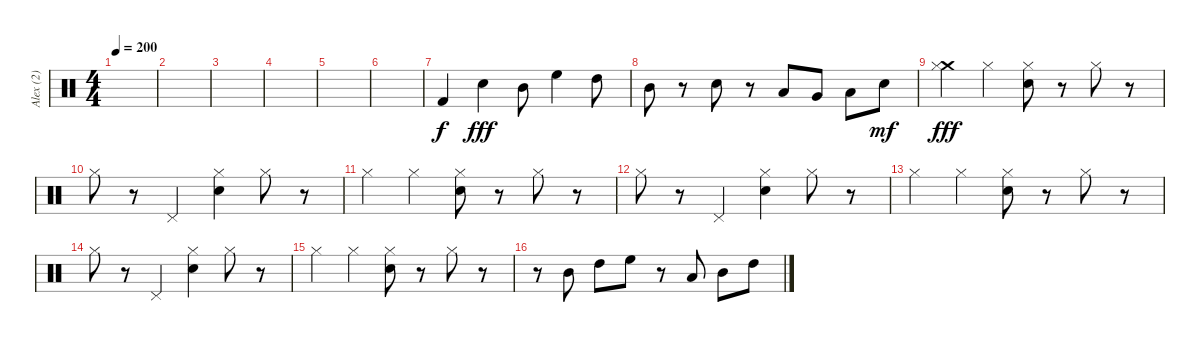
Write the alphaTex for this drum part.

\track ("Alex (2)" "Alex (2)") {instrument percussion}
\staff {score}
\articulation defaults
\ts (4 4)
\tempo 200
\clef neutral
\ks c
|
|
|
|
|
|
"Kick (hit) 2".4 "Electric Snare (hit)".4{dy fff} "Mid Tom (hit)".8 "High Floor Tom (hit)".4 "High Tom (hit)".8 |
"Mid Tom (hit)".8 r.8 "Electric Snare (hit)".8 r.8 "Low Tom (hit)".8 "Very Low Tom (hit)".8 "Low Floor Tom (hit)".8 "Electric Snare (hit)".8{dy mf} |
("Crash medium (hit)" "Hi-Hat (closed)").4{dy fff} "Hi-Hat (closed)".4 ("Electric Snare (hit)" "Hi-Hat (closed)").8 r.8 "Hi-Hat (closed)".8 r.8 |
"Hi-Hat (closed)".8 r.8 "Pedal Hi-Hat (hit)".4 ("Electric Snare (hit)" "Hi-Hat (closed)").4 "Hi-Hat (closed)".8 r.8 |
"Hi-Hat (closed)".4 "Hi-Hat (closed)".4 ("Electric Snare (hit)" "Hi-Hat (closed)").8 r.8 "Hi-Hat (closed)".8 r.8 |
"Hi-Hat (closed)".8 r.8 "Pedal Hi-Hat (hit)".4 ("Electric Snare (hit)" "Hi-Hat (closed)").4 "Hi-Hat (closed)".8 r.8 |
"Hi-Hat (closed)".4 "Hi-Hat (closed)".4 ("Electric Snare (hit)" "Hi-Hat (closed)").8 r.8 "Hi-Hat (closed)".8 r.8 |
"Hi-Hat (closed)".8 r.8 "Pedal Hi-Hat (hit)".4 ("Electric Snare (hit)" "Hi-Hat (closed)").4 "Hi-Hat (closed)".8 r.8 |
"Hi-Hat (closed)".4 "Hi-Hat (closed)".4 ("Electric Snare (hit)" "Hi-Hat (closed)").8 r.8 "Hi-Hat (closed)".8 r.8 |
r.8 "Mid Tom (hit)".8 "High Tom (hit)".8 "High Floor Tom (hit)".8 r.8 "Low Tom (hit)".8 "Mid Tom (hit)".8 "High Tom (hit)".8
